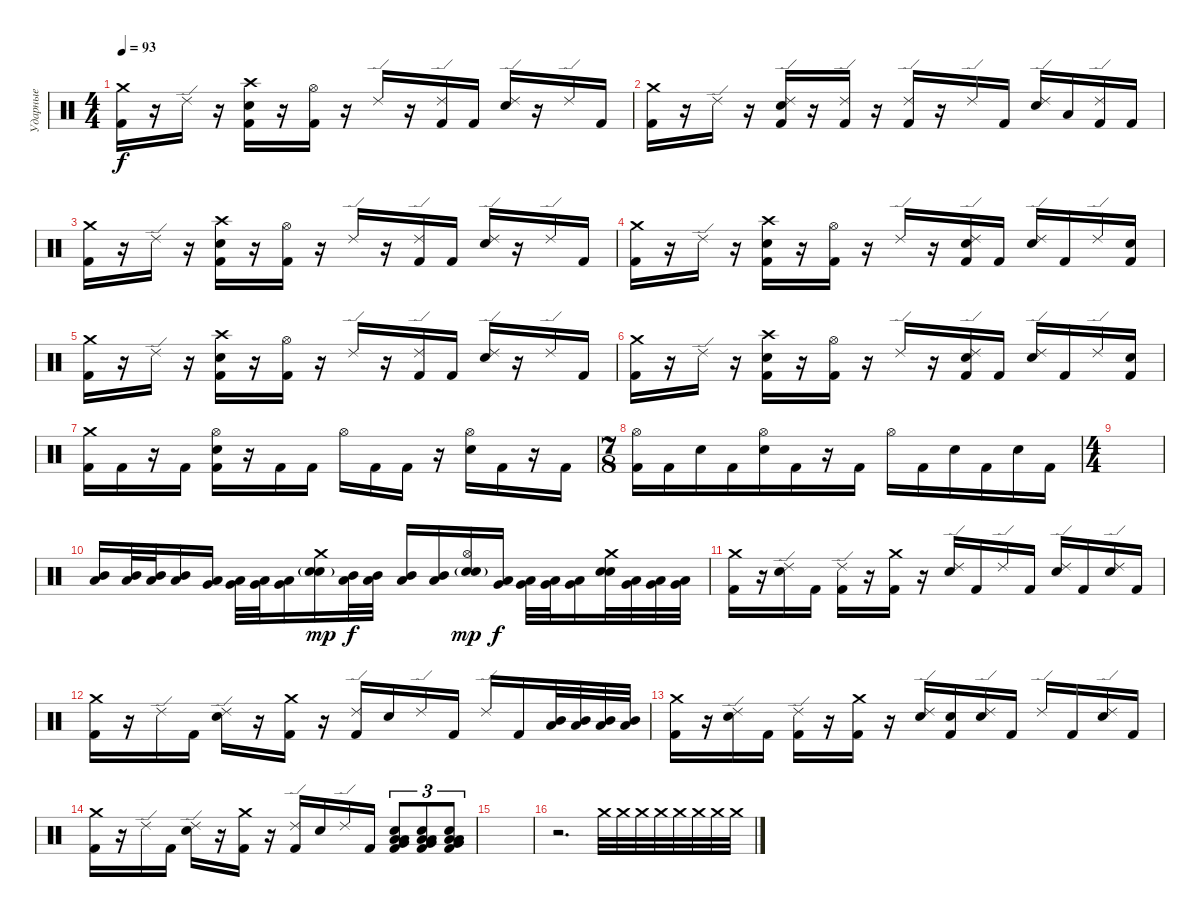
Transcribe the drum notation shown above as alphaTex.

\track ("Ударные" "Ударные") {instrument percussion}
\staff {score}
\articulation defaults
\ts (4 4)
\tempo 93
\clef neutral
\ks c
("Crash medium (hit)" "Kick (hit) 2").16{dy f} r.16 "Ride (edge) 2".16 r.16 ("Crash high (hit)" "Electric Snare (hit)" "Kick (hit) 2").16 r.16 ("Hi-Hat (open)" "Kick (hit) 2").16 r.16 "Ride (edge) 2".16 r.16 ("Ride (edge) 2" "Kick (hit) 2").16 "Kick (hit) 2".16 ("Ride (edge) 2" "Electric Snare (hit)").16 r.16 "Ride (edge) 2".16 "Kick (hit) 2".16 |
("Crash medium (hit)" "Kick (hit) 2").16 r.16 "Ride (edge) 2".16 r.16 ("Ride (edge) 2" "Electric Snare (hit)" "Kick (hit) 2").16 r.16 ("Ride (edge) 2" "Kick (hit) 2").16 r.16 ("Ride (edge) 2" "Kick (hit) 2").16 r.16 "Ride (edge) 2".16 "Kick (hit) 2".16 ("Ride (edge) 2" "Electric Snare (hit)").16 "Low Tom (hit)".16 ("Ride (edge) 2" "Kick (hit) 2").16 "Kick (hit) 2".16 |
("Crash medium (hit)" "Kick (hit) 2").16 r.16 "Ride (edge) 2".16 r.16 ("Crash high (hit)" "Electric Snare (hit)" "Kick (hit) 2").16 r.16 ("Hi-Hat (open)" "Kick (hit) 2").16 r.16 "Ride (edge) 2".16 r.16 ("Ride (edge) 2" "Kick (hit) 2").16 "Kick (hit) 2".16 ("Ride (edge) 2" "Electric Snare (hit)").16 r.16 "Ride (edge) 2".16 "Kick (hit) 2".16 |
("Crash medium (hit)" "Kick (hit) 2").16 r.16 "Ride (edge) 2".16 r.16 ("Crash high (hit)" "Electric Snare (hit)" "Kick (hit) 2").16 r.16 ("Hi-Hat (open)" "Kick (hit) 2").16 r.16 "Ride (edge) 2".16 r.16 ("Ride (edge) 2" "Electric Snare (hit)" "Kick (hit) 2").16 "Kick (hit) 2".16 ("Ride (edge) 2" "Electric Snare (hit)").16 "Kick (hit) 2".16 "Ride (edge) 2".16 ("Electric Snare (hit)" "Kick (hit) 2").16 |
("Crash medium (hit)" "Kick (hit) 2").16 r.16 "Ride (edge) 2".16 r.16 ("Crash high (hit)" "Electric Snare (hit)" "Kick (hit) 2").16 r.16 ("Hi-Hat (open)" "Kick (hit) 2").16 r.16 "Ride (edge) 2".16 r.16 ("Ride (edge) 2" "Kick (hit) 2").16 "Kick (hit) 2".16 ("Ride (edge) 2" "Electric Snare (hit)").16 r.16 "Ride (edge) 2".16 "Kick (hit) 2".16 |
("Crash medium (hit)" "Kick (hit) 2").16 r.16 "Ride (edge) 2".16 r.16 ("Crash high (hit)" "Electric Snare (hit)" "Kick (hit) 2").16 r.16 ("Hi-Hat (open)" "Kick (hit) 2").16 r.16 "Ride (edge) 2".16 r.16 ("Ride (edge) 2" "Electric Snare (hit)" "Kick (hit) 2").16 "Kick (hit) 2".16 ("Ride (edge) 2" "Electric Snare (hit)").16 "Kick (hit) 2".16 "Ride (edge) 2".16 ("Electric Snare (hit)" "Kick (hit) 2").16 |
("Crash medium (hit)" "Kick (hit) 2").16 "Kick (hit) 2".16 r.16 "Kick (hit) 2".16 ("Hi-Hat (open)" "Electric Snare (hit)" "Kick (hit) 2").16 r.16 "Kick (hit) 2".16 "Kick (hit) 2".16 "Hi-Hat (open)".16 "Kick (hit) 2".16 "Kick (hit) 2".16 r.16 ("Hi-Hat (open)" "Electric Snare (hit)").16 "Kick (hit) 2".16 r.16 "Kick (hit) 2".16 |
\ts (7 8)
("Hi-Hat (open)" "Kick (hit) 2").16 "Kick (hit) 2".16 "Electric Snare (hit)".16 "Kick (hit) 2".16 ("Hi-Hat (open)" "Electric Snare (hit)").16 "Kick (hit) 2".16 r.16 "Kick (hit) 2".16 "Hi-Hat (open)".16 "Kick (hit) 2".16 "Electric Snare (hit)".16 "Kick (hit) 2".16 "Electric Snare (hit)".16 "Kick (hit) 2".16 |
\ts (4 4)
|
("Mid Tom (hit)" "Low Tom (hit)").16 ("Mid Tom (hit)" "Low Tom (hit)").32 ("Mid Tom (hit)" "Low Tom (hit)").32 ("Mid Tom (hit)" "Low Tom (hit)").16 ("Low Tom (hit)" "Very Low Tom (hit)").16 ("Low Tom (hit)" "Very Low Tom (hit)").32 ("Low Tom (hit)" "Very Low Tom (hit)").32 ("Low Tom (hit)" "Very Low Tom (hit)").16 ("Crash medium (hit)" "Electric Snare (hit)" "Snare (hit) 2"{g}).16{dy mp} ("Mid Tom (hit)" "Low Tom (hit)").32{dy f} ("Mid Tom (hit)" "Low Tom (hit)").32 ("Mid Tom (hit)" "Low Tom (hit)").16 ("Mid Tom (hit)" "Low Tom (hit)").16 ("Hi-Hat (open)" "Electric Snare (hit)" "Snare (hit) 2"{g}).16{dy mp} ("Low Tom (hit)" "Very Low Tom (hit)").16{dy f} ("Low Tom (hit)" "Very Low Tom (hit)").32 ("Low Tom (hit)" "Very Low Tom (hit)").32 ("Low Tom (hit)" "Very Low Tom (hit)").16 ("Crash medium (hit)" "Snare (hit) 2" "Electric Snare (hit)").32 ("Very Low Tom (hit)" "Low Floor Tom (hit)").32 ("Very Low Tom (hit)" "Low Floor Tom (hit)").32 ("Very Low Tom (hit)" "Low Floor Tom (hit)").32 |
("Crash medium (hit)" "Kick (hit) 2").16 r.16 ("Ride (edge) 2" "Electric Snare (hit)").16 "Kick (hit) 2".16 ("Ride (edge) 2" "Kick (hit) 2").16 r.16 ("Crash medium (hit)" "Kick (hit) 2").16 r.16 ("Ride (edge) 2" "Electric Snare (hit)").16 "Kick (hit) 2".16 "Ride (edge) 2".16 "Kick (hit) 2".16 ("Ride (edge) 2" "Electric Snare (hit)").16 "Kick (hit) 2".16 ("Ride (edge) 2" "Electric Snare (hit)").16 "Kick (hit) 2".16 |
("Crash medium (hit)" "Kick (hit) 2").16 r.16 "Ride (edge) 2".16 "Kick (hit) 2".16 ("Ride (edge) 2" "Electric Snare (hit)").16 r.16 ("Crash medium (hit)" "Kick (hit) 2").16 r.16 ("Ride (edge) 2" "Kick (hit) 2").16 "Electric Snare (hit)".16 "Ride (edge) 2".16 "Kick (hit) 2".16 "Ride (edge) 2".16 "Kick (hit) 2".16 ("Mid Tom (hit)" "Low Tom (hit)").32 ("Mid Tom (hit)" "Low Tom (hit)").32 ("Mid Tom (hit)" "Low Tom (hit)").32 ("Mid Tom (hit)" "Low Tom (hit)").32 |
("Crash medium (hit)" "Kick (hit) 2").16 r.16 ("Ride (edge) 2" "Electric Snare (hit)").16 "Kick (hit) 2".16 ("Ride (edge) 2" "Kick (hit) 2").16 r.16 ("Crash medium (hit)" "Kick (hit) 2").16 r.16 ("Ride (edge) 2" "Electric Snare (hit)").16 ("Electric Snare (hit)" "Kick (hit) 2").16 ("Ride (edge) 2" "Electric Snare (hit)").16 "Kick (hit) 2".16 "Ride (edge) 2".16 "Kick (hit) 2".16 ("Ride (edge) 2" "Electric Snare (hit)").16 "Kick (hit) 2".16 |
("Crash medium (hit)" "Kick (hit) 2").16 r.16 "Ride (edge) 2".16 "Kick (hit) 2".16 ("Ride (edge) 2" "Electric Snare (hit)").16 r.16 ("Crash medium (hit)" "Kick (hit) 2").16 r.16 ("Ride (edge) 2" "Kick (hit) 2").16 "Electric Snare (hit)".16 "Ride (edge) 2".16 "Kick (hit) 2".16 ("Snare (hit) 2" "Very Low Tom (hit)" "Low Tom (hit)" "Low Floor Tom (hit)" "Kick (hit) 2").8{tu (3 2)} ("Snare (hit) 2" "Very Low Tom (hit)" "Low Tom (hit)" "Low Floor Tom (hit)" "Kick (hit) 2").8{tu (3 2)} ("Snare (hit) 2" "Very Low Tom (hit)" "Low Tom (hit)" "Low Floor Tom (hit)" "Kick (hit) 2").8{tu (3 2)} |
|
r.2{d} "Crash medium (hit)".32{volume 5} "Crash medium (hit)".32 "Crash medium (hit)".32 "Crash medium (hit)".32 "Crash medium (hit)".32{volume 9} "Crash medium (hit)".32 "Crash medium (hit)".32{volume 13} "Crash medium (hit)".32
